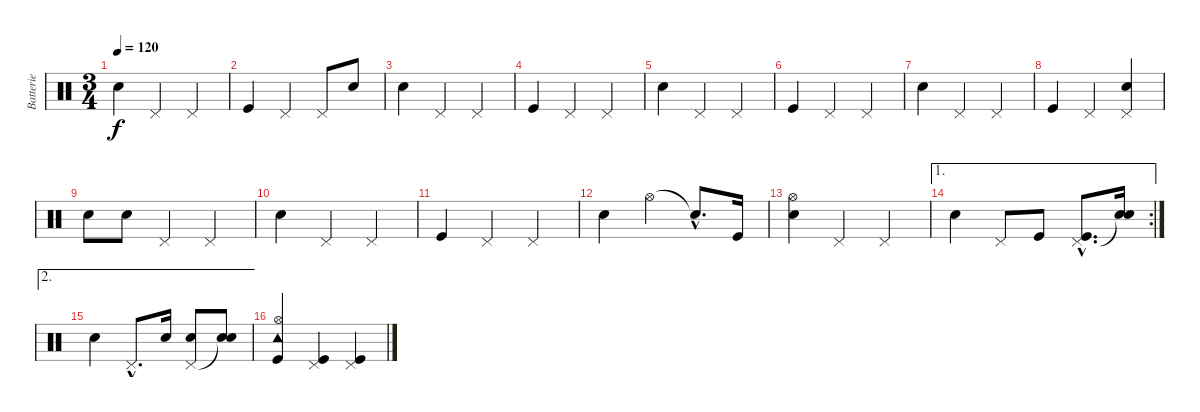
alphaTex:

\track ("Batterie" "Batterie") {instrument percussion}
\staff {score}
\articulation defaults
\ts (3 4)
\tempo 120
\clef neutral
\ks c "Snare (hit) 2".4{dy f} "Pedal Hi-Hat (hit)".4 "Pedal Hi-Hat (hit)".4
|
"Kick (hit)".4 "Pedal Hi-Hat (hit)".4 "Pedal Hi-Hat (hit)".8 "Snare (hit) 2".8 |
"Snare (hit) 2".4 "Pedal Hi-Hat (hit)".4 "Pedal Hi-Hat (hit)".4 |
"Kick (hit)".4 "Pedal Hi-Hat (hit)".4 "Pedal Hi-Hat (hit)".4 |
"Snare (hit) 2".4 "Pedal Hi-Hat (hit)".4 "Pedal Hi-Hat (hit)".4 |
"Kick (hit)".4 "Pedal Hi-Hat (hit)".4 "Pedal Hi-Hat (hit)".4 |
"Snare (hit) 2".4 "Pedal Hi-Hat (hit)".4 "Pedal Hi-Hat (hit)".4 |
"Kick (hit)".4 "Pedal Hi-Hat (hit)".4 ("Pedal Hi-Hat (hit)" "Snare (hit) 2").4 |
"Snare (hit) 2".8 "Snare (hit) 2".8 "Pedal Hi-Hat (hit)".4 "Pedal Hi-Hat (hit)".4 |
"Snare (hit) 2".4 "Pedal Hi-Hat (hit)".4 "Pedal Hi-Hat (hit)".4 |
"Kick (hit)".4 "Pedal Hi-Hat (hit)".4 "Pedal Hi-Hat (hit)".4 |
"Snare (hit) 2".4 "Hi-Hat (open)".4 "Snare (hit)"{hac t}.8{d} "Kick (hit)".16 |
("Hi-Hat (open)" "Snare (hit) 2").4 "Pedal Hi-Hat (hit)".4 "Pedal Hi-Hat (hit)".4 |
\ae 1
\rc 2 "Snare (hit) 2".4 "Pedal Hi-Hat (hit)".8 "Kick (hit)".8
("Pedal Hi-Hat (hit)"{hac} "Kick (hit)"{hac}).8{d} ("Snare (hit)"{t} "Snare (hit) 2").16 |
\ae 2 "Snare (hit) 2".4 "Pedal Hi-Hat (hit)"{hac}.8{d} "Snare (hit) 2".16
("Pedal Hi-Hat (hit)" "Snare (hit) 2").8 ("Snare (hit)"{t} "Snare (hit) 2").8 |
("Hi-Hat (open)" "Tambourine (hit)" "Kick (hit)").4 ("Pedal Hi-Hat (hit)" "Kick (hit)").4 ("Pedal Hi-Hat (hit)" "Kick (hit)").4
